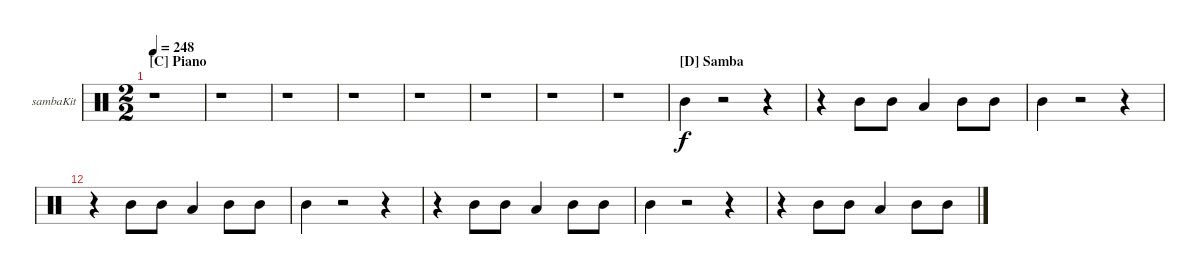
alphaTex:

\bracketExtendMode nobrackets
\firstSystemTrackNameOrientation horizontal
\otherSystemsTrackNameOrientation horizontal
\defaultBarNumberDisplay FirstOfSystem
\track ("Kit-Samba" "sambaKit") {instrument percussion}
\staff {score}
\articulation defaults
\ts (2 2)
\beaming (8 2 2 2 2)
\section ("C" "Piano")
\tempo 248
\clef neutral
\ks c
r.1{dy f} |
r.1 |
r.1 |
r.1 |
r.1 |
r.1 |
r.1 |
r.1 |
\section ("D" "Samba")
"Mid Tom (hit)".4 r.2 r.4 |
r.4 "Mid Tom (hit)".8 "Mid Tom (hit)".8 "Low Tom (hit)".4 "Mid Tom (hit)".8 "Mid Tom (hit)".8 |
"Mid Tom (hit)".4 r.2 r.4 |
r.4 "Mid Tom (hit)".8 "Mid Tom (hit)".8 "Low Tom (hit)".4 "Mid Tom (hit)".8 "Mid Tom (hit)".8 |
"Mid Tom (hit)".4 r.2 r.4 |
r.4 "Mid Tom (hit)".8 "Mid Tom (hit)".8 "Low Tom (hit)".4 "Mid Tom (hit)".8 "Mid Tom (hit)".8 |
"Mid Tom (hit)".4 r.2 r.4 |
r.4 "Mid Tom (hit)".8 "Mid Tom (hit)".8 "Low Tom (hit)".4 "Mid Tom (hit)".8 "Mid Tom (hit)".8
